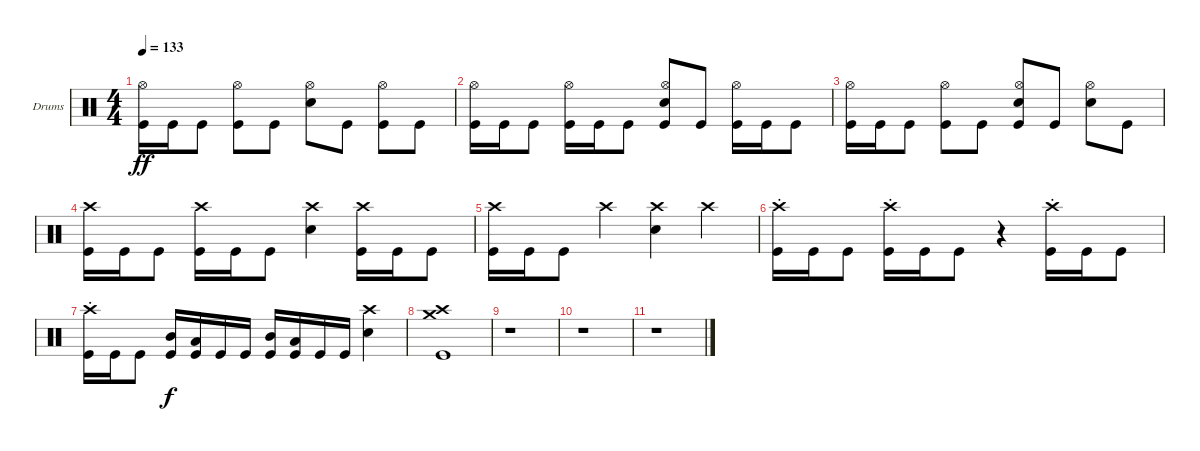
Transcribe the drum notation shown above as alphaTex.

\defaultSystemsLayout 4
\bracketExtendMode groupsimilarinstruments
\firstSystemTrackNameOrientation horizontal
\otherSystemsTrackNameOrientation horizontal
\track ("Drumkit" "Drums") {instrument percussion}
\staff {score}
\articulation defaults
\ts (4 4)
\tempo 133
\clef neutral
\ks c
("Kick (hit)" "Hi-Hat (open)").16{dy ff} "Kick (hit)".16 "Kick (hit)".8 ("Kick (hit)" "Hi-Hat (open)").8 "Kick (hit)".8 ("Snare (hit) 2" "Hi-Hat (open)").8 "Kick (hit)".8 ("Kick (hit)" "Hi-Hat (open)").8 "Kick (hit)".8 |
("Kick (hit)" "Hi-Hat (open)").16 "Kick (hit)".16 "Kick (hit)".8 ("Kick (hit)" "Hi-Hat (open)").16 "Kick (hit)".16 "Kick (hit)".8 ("Snare (hit) 2" "Kick (hit)" "Hi-Hat (open)").8 "Kick (hit)".8 ("Kick (hit)" "Hi-Hat (open)").16 "Kick (hit)".16 "Kick (hit)".8 |
("Kick (hit)" "Hi-Hat (open)").16 "Kick (hit)".16 "Kick (hit)".8 ("Kick (hit)" "Hi-Hat (open)").8 "Kick (hit)".8 ("Kick (hit)" "Hi-Hat (open)" "Snare (hit) 2").8 "Kick (hit)".8 ("Snare (hit) 2" "Hi-Hat (open)").8 "Kick (hit)".8 |
("Crash high (hit)" "Kick (hit)").16 "Kick (hit)".16 "Kick (hit)".8 ("Kick (hit)" "Crash high (hit)").16 "Kick (hit)".16 "Kick (hit)".8 ("Crash high (hit)" "Snare (hit) 2").4 ("Kick (hit)" "Crash high (hit)").16 "Kick (hit)".16 "Kick (hit)".8 |
("Crash high (hit)" "Kick (hit)").16 "Kick (hit)".16 "Kick (hit)".8 "Crash high (hit)".4 ("Crash high (hit)" "Snare (hit) 2").4 "Crash high (hit)".4 |
("Kick (hit)" "Crash high (hit)"{st}).16 "Kick (hit)".16 "Kick (hit)".8 ("Kick (hit)" "Crash high (hit)"{st}).16 "Kick (hit)".16 "Kick (hit)".8 r.4 ("Kick (hit)" "Crash high (hit)"{st}).16 "Kick (hit)".16 "Kick (hit)".8 |
("Kick (hit)" "Crash high (hit)"{st}).16 "Kick (hit)".16 "Kick (hit)".8 ("Kick (hit)" "Mid Tom (hit)").16{dy f} ("Kick (hit)" "Low Tom (hit)").16 "Kick (hit)".16 "Kick (hit)".16 ("Kick (hit)" "Mid Tom (hit)").16 ("Kick (hit)" "Low Tom (hit)").16 "Kick (hit)".16 "Kick (hit)".16 ("Snare (hit) 2" "Crash high (hit)").4 |
("Kick (hit)" "Crash medium (hit)" "Crash high (hit)").1 |
r.1 |
r.1 |
r.1
